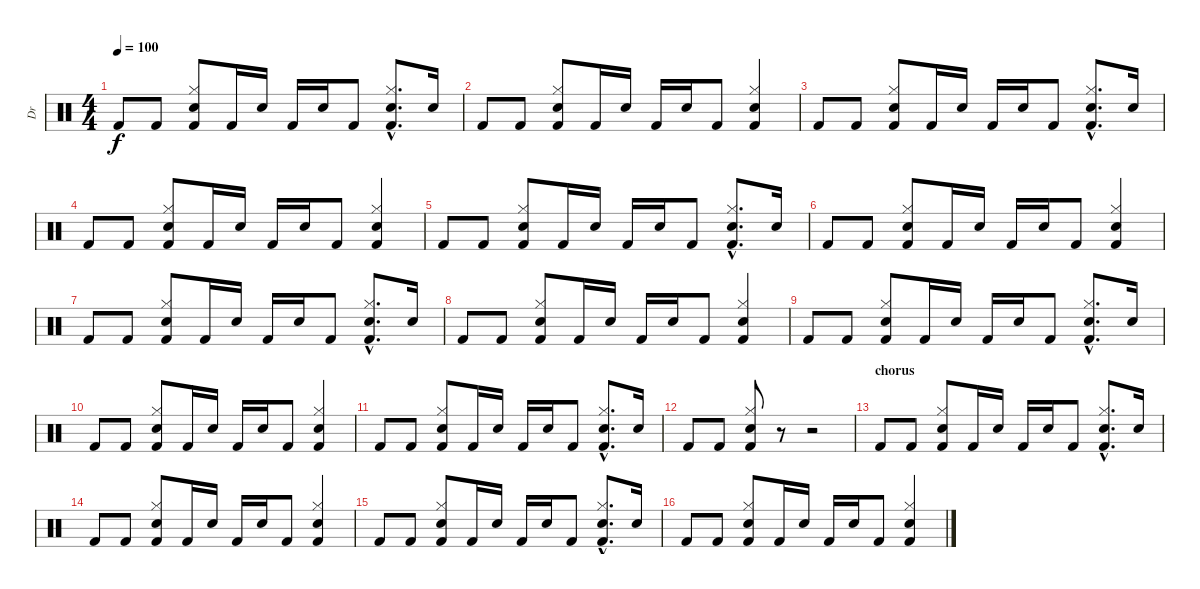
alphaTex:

\track ("Dr" "Dr") {instrument percussion}
\staff {score}
\articulation defaults
\ts (4 4)
\tempo 100
\clef neutral
\ks c "Kick (hit) 2".8{dy f} "Kick (hit) 2".8
("Hi-Hat (closed)" "Electric Snare (hit)" "Kick (hit) 2").8 "Kick (hit) 2".16 "Electric Snare (hit)".16 "Kick (hit) 2".16 "Electric Snare (hit)".16 "Kick (hit) 2".8 ("Hi-Hat (closed)"{hac} "Electric Snare (hit)"{hac} "Kick (hit) 2"{hac}).8{d} "Electric Snare (hit)".16 |
"Kick (hit) 2".8 "Kick (hit) 2".8 ("Hi-Hat (closed)" "Electric Snare (hit)" "Kick (hit) 2").8 "Kick (hit) 2".16 "Electric Snare (hit)".16 "Kick (hit) 2".16 "Electric Snare (hit)".16 "Kick (hit) 2".8 ("Hi-Hat (closed)" "Electric Snare (hit)" "Kick (hit) 2").4 |
"Kick (hit) 2".8 "Kick (hit) 2".8 ("Hi-Hat (closed)" "Electric Snare (hit)" "Kick (hit) 2").8 "Kick (hit) 2".16 "Electric Snare (hit)".16 "Kick (hit) 2".16 "Electric Snare (hit)".16 "Kick (hit) 2".8 ("Hi-Hat (closed)"{hac} "Electric Snare (hit)"{hac} "Kick (hit) 2"{hac}).8{d} "Electric Snare (hit)".16 |
"Kick (hit) 2".8 "Kick (hit) 2".8 ("Hi-Hat (closed)" "Electric Snare (hit)" "Kick (hit) 2").8 "Kick (hit) 2".16 "Electric Snare (hit)".16 "Kick (hit) 2".16 "Electric Snare (hit)".16 "Kick (hit) 2".8 ("Hi-Hat (closed)" "Electric Snare (hit)" "Kick (hit) 2").4 |
"Kick (hit) 2".8 "Kick (hit) 2".8 ("Hi-Hat (closed)" "Electric Snare (hit)" "Kick (hit) 2").8 "Kick (hit) 2".16 "Electric Snare (hit)".16 "Kick (hit) 2".16 "Electric Snare (hit)".16 "Kick (hit) 2".8 ("Hi-Hat (closed)"{hac} "Electric Snare (hit)"{hac} "Kick (hit) 2"{hac}).8{d} "Electric Snare (hit)".16 |
"Kick (hit) 2".8 "Kick (hit) 2".8 ("Hi-Hat (closed)" "Electric Snare (hit)" "Kick (hit) 2").8 "Kick (hit) 2".16 "Electric Snare (hit)".16 "Kick (hit) 2".16 "Electric Snare (hit)".16 "Kick (hit) 2".8 ("Hi-Hat (closed)" "Electric Snare (hit)" "Kick (hit) 2").4 |
"Kick (hit) 2".8 "Kick (hit) 2".8 ("Hi-Hat (closed)" "Electric Snare (hit)" "Kick (hit) 2").8 "Kick (hit) 2".16 "Electric Snare (hit)".16 "Kick (hit) 2".16 "Electric Snare (hit)".16 "Kick (hit) 2".8 ("Hi-Hat (closed)"{hac} "Electric Snare (hit)"{hac} "Kick (hit) 2"{hac}).8{d} "Electric Snare (hit)".16 |
"Kick (hit) 2".8 "Kick (hit) 2".8 ("Hi-Hat (closed)" "Electric Snare (hit)" "Kick (hit) 2").8 "Kick (hit) 2".16 "Electric Snare (hit)".16 "Kick (hit) 2".16 "Electric Snare (hit)".16 "Kick (hit) 2".8 ("Hi-Hat (closed)" "Electric Snare (hit)" "Kick (hit) 2").4 |
"Kick (hit) 2".8 "Kick (hit) 2".8 ("Hi-Hat (closed)" "Electric Snare (hit)" "Kick (hit) 2").8 "Kick (hit) 2".16 "Electric Snare (hit)".16 "Kick (hit) 2".16 "Electric Snare (hit)".16 "Kick (hit) 2".8 ("Hi-Hat (closed)"{hac} "Electric Snare (hit)"{hac} "Kick (hit) 2"{hac}).8{d} "Electric Snare (hit)".16 |
"Kick (hit) 2".8 "Kick (hit) 2".8 ("Hi-Hat (closed)" "Electric Snare (hit)" "Kick (hit) 2").8 "Kick (hit) 2".16 "Electric Snare (hit)".16 "Kick (hit) 2".16 "Electric Snare (hit)".16 "Kick (hit) 2".8 ("Hi-Hat (closed)" "Electric Snare (hit)" "Kick (hit) 2").4 |
"Kick (hit) 2".8 "Kick (hit) 2".8 ("Hi-Hat (closed)" "Electric Snare (hit)" "Kick (hit) 2").8 "Kick (hit) 2".16 "Electric Snare (hit)".16 "Kick (hit) 2".16 "Electric Snare (hit)".16 "Kick (hit) 2".8 ("Hi-Hat (closed)"{hac} "Electric Snare (hit)"{hac} "Kick (hit) 2"{hac}).8{d} "Electric Snare (hit)".16 |
"Kick (hit) 2".8 "Kick (hit) 2".8 ("Hi-Hat (closed)" "Electric Snare (hit)" "Kick (hit) 2").8 r.8 r.2 |
\section ("" "chorus")
"Kick (hit) 2".8 "Kick (hit) 2".8 ("Hi-Hat (closed)" "Electric Snare (hit)" "Kick (hit) 2").8 "Kick (hit) 2".16 "Electric Snare (hit)".16 "Kick (hit) 2".16 "Electric Snare (hit)".16 "Kick (hit) 2".8 ("Hi-Hat (closed)"{hac} "Electric Snare (hit)"{hac} "Kick (hit) 2"{hac}).8{d} "Electric Snare (hit)".16 |
"Kick (hit) 2".8 "Kick (hit) 2".8 ("Hi-Hat (closed)" "Electric Snare (hit)" "Kick (hit) 2").8 "Kick (hit) 2".16 "Electric Snare (hit)".16 "Kick (hit) 2".16 "Electric Snare (hit)".16 "Kick (hit) 2".8 ("Hi-Hat (closed)" "Electric Snare (hit)" "Kick (hit) 2").4 |
"Kick (hit) 2".8 "Kick (hit) 2".8 ("Hi-Hat (closed)" "Electric Snare (hit)" "Kick (hit) 2").8 "Kick (hit) 2".16 "Electric Snare (hit)".16 "Kick (hit) 2".16 "Electric Snare (hit)".16 "Kick (hit) 2".8 ("Hi-Hat (closed)"{hac} "Electric Snare (hit)"{hac} "Kick (hit) 2"{hac}).8{d} "Electric Snare (hit)".16 |
"Kick (hit) 2".8 "Kick (hit) 2".8 ("Hi-Hat (closed)" "Electric Snare (hit)" "Kick (hit) 2").8 "Kick (hit) 2".16 "Electric Snare (hit)".16 "Kick (hit) 2".16 "Electric Snare (hit)".16 "Kick (hit) 2".8 ("Hi-Hat (closed)" "Electric Snare (hit)" "Kick (hit) 2").4
